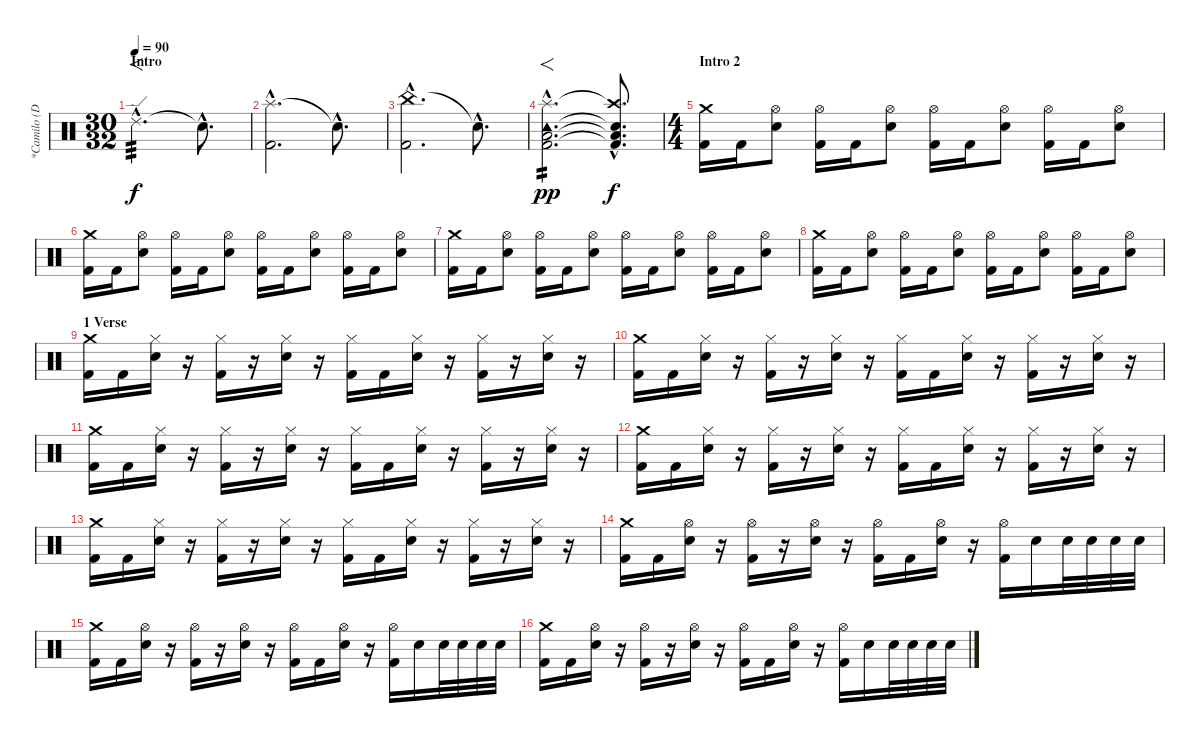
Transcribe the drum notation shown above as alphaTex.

\track ("*Camilo (Drums)" "*Camilo (D") {instrument percussion}
\staff {score}
\articulation defaults
\ts (30 32)
\section ("" "Intro")
\tempo 90
\clef neutral
\ks c "Ride (edge) 2"{hac}.2{f d tp 3 dy f} "Snare (hit)"{hac t}.8{d}
|
("Splash (hit)"{hac} "Kick (hit) 2"{hac}).2{d} "Snare (hit)"{hac t}.8{d} |
("China (hit)"{hac} "Kick (hit) 2"{hac}).2{d} "Snare (hit)"{hac t}.8{d} |
("Splash (hit)"{hac} "Tambourine (hit)"{hac} "Low Floor Tom (hit)"{hac} "Kick (hit) 2"{hac}).2{f d tp 2 dy pp} ("Crash high (hit)"{hac t} "Electric Snare (hit)"{hac t} "Low Floor Tom (hit)"{hac t} "Kick (hit) 2"{hac t}).8{d dy f} |
\ts (4 4)
\section ("" "Intro 2")
("Crash medium (hit)" "Kick (hit) 2").16 "Kick (hit) 2".16 ("Hi-Hat (open)" "Electric Snare (hit)").8 ("Hi-Hat (open)" "Kick (hit) 2").16 "Kick (hit) 2".16 ("Hi-Hat (open)" "Electric Snare (hit)").8 ("Hi-Hat (open)" "Kick (hit) 2").16 "Kick (hit) 2".16 ("Hi-Hat (open)" "Electric Snare (hit)").8 ("Hi-Hat (open)" "Kick (hit) 2").16 "Kick (hit) 2".16 ("Hi-Hat (open)" "Electric Snare (hit)").8 |
("Crash medium (hit)" "Kick (hit) 2").16 "Kick (hit) 2".16 ("Hi-Hat (open)" "Electric Snare (hit)").8 ("Hi-Hat (open)" "Kick (hit) 2").16 "Kick (hit) 2".16 ("Hi-Hat (open)" "Electric Snare (hit)").8 ("Hi-Hat (open)" "Kick (hit) 2").16 "Kick (hit) 2".16 ("Hi-Hat (open)" "Electric Snare (hit)").8 ("Hi-Hat (open)" "Kick (hit) 2").16 "Kick (hit) 2".16 ("Hi-Hat (open)" "Electric Snare (hit)").8 |
("Crash medium (hit)" "Kick (hit) 2").16 "Kick (hit) 2".16 ("Hi-Hat (open)" "Electric Snare (hit)").8 ("Hi-Hat (open)" "Kick (hit) 2").16 "Kick (hit) 2".16 ("Hi-Hat (open)" "Electric Snare (hit)").8 ("Hi-Hat (open)" "Kick (hit) 2").16 "Kick (hit) 2".16 ("Hi-Hat (open)" "Electric Snare (hit)").8 ("Hi-Hat (open)" "Kick (hit) 2").16 "Kick (hit) 2".16 ("Hi-Hat (open)" "Electric Snare (hit)").8 |
("Crash medium (hit)" "Kick (hit) 2").16 "Kick (hit) 2".16 ("Hi-Hat (open)" "Electric Snare (hit)").8 ("Hi-Hat (open)" "Kick (hit) 2").16 "Kick (hit) 2".16 ("Hi-Hat (open)" "Electric Snare (hit)").8 ("Hi-Hat (open)" "Kick (hit) 2").16 "Kick (hit) 2".16 ("Hi-Hat (open)" "Electric Snare (hit)").8 ("Hi-Hat (open)" "Kick (hit) 2").16 "Kick (hit) 2".16 ("Hi-Hat (open)" "Electric Snare (hit)").8 |
\section ("" "1 Verse")
("Crash medium (hit)" "Kick (hit) 2").16 "Kick (hit) 2".16 ("Hi-Hat (closed)" "Electric Snare (hit)").16 r.16 ("Hi-Hat (closed)" "Kick (hit) 2").16 r.16 ("Hi-Hat (closed)" "Electric Snare (hit)").16 r.16 ("Hi-Hat (closed)" "Kick (hit) 2").16 "Kick (hit) 2".16 ("Hi-Hat (closed)" "Electric Snare (hit)").16 r.16 ("Hi-Hat (closed)" "Kick (hit) 2").16 r.16 ("Hi-Hat (closed)" "Electric Snare (hit)").16 r.16 |
("Crash medium (hit)" "Kick (hit) 2").16 "Kick (hit) 2".16 ("Hi-Hat (closed)" "Electric Snare (hit)").16 r.16 ("Hi-Hat (closed)" "Kick (hit) 2").16 r.16 ("Hi-Hat (closed)" "Electric Snare (hit)").16 r.16 ("Hi-Hat (closed)" "Kick (hit) 2").16 "Kick (hit) 2".16 ("Hi-Hat (closed)" "Electric Snare (hit)").16 r.16 ("Hi-Hat (closed)" "Kick (hit) 2").16 r.16 ("Hi-Hat (closed)" "Electric Snare (hit)").16 r.16 |
("Crash medium (hit)" "Kick (hit) 2").16 "Kick (hit) 2".16 ("Hi-Hat (closed)" "Electric Snare (hit)").16 r.16 ("Hi-Hat (closed)" "Kick (hit) 2").16 r.16 ("Hi-Hat (closed)" "Electric Snare (hit)").16 r.16 ("Hi-Hat (closed)" "Kick (hit) 2").16 "Kick (hit) 2".16 ("Hi-Hat (closed)" "Electric Snare (hit)").16 r.16 ("Hi-Hat (closed)" "Kick (hit) 2").16 r.16 ("Hi-Hat (closed)" "Electric Snare (hit)").16 r.16 |
("Crash medium (hit)" "Kick (hit) 2").16 "Kick (hit) 2".16 ("Hi-Hat (closed)" "Electric Snare (hit)").16 r.16 ("Hi-Hat (closed)" "Kick (hit) 2").16 r.16 ("Hi-Hat (closed)" "Electric Snare (hit)").16 r.16 ("Hi-Hat (closed)" "Kick (hit) 2").16 "Kick (hit) 2".16 ("Hi-Hat (closed)" "Electric Snare (hit)").16 r.16 ("Hi-Hat (closed)" "Kick (hit) 2").16 r.16 ("Hi-Hat (closed)" "Electric Snare (hit)").16 r.16 |
("Crash medium (hit)" "Kick (hit) 2").16 "Kick (hit) 2".16 ("Hi-Hat (closed)" "Electric Snare (hit)").16 r.16 ("Hi-Hat (closed)" "Kick (hit) 2").16 r.16 ("Hi-Hat (closed)" "Electric Snare (hit)").16 r.16 ("Hi-Hat (closed)" "Kick (hit) 2").16 "Kick (hit) 2".16 ("Hi-Hat (closed)" "Electric Snare (hit)").16 r.16 ("Hi-Hat (closed)" "Kick (hit) 2").16 r.16 ("Hi-Hat (closed)" "Electric Snare (hit)").16 r.16 |
("Crash medium (hit)" "Kick (hit) 2").16 "Kick (hit) 2".16 ("Hi-Hat (open)" "Electric Snare (hit)").16 r.16 ("Hi-Hat (open)" "Kick (hit) 2").16 r.16 ("Hi-Hat (open)" "Electric Snare (hit)").16 r.16 ("Hi-Hat (open)" "Kick (hit) 2").16 "Kick (hit) 2".16 ("Hi-Hat (open)" "Electric Snare (hit)").16 r.16 ("Hi-Hat (open)" "Kick (hit) 2").16 "Electric Snare (hit)".16 "Electric Snare (hit)".32 "Electric Snare (hit)".32 "Electric Snare (hit)".32 "Electric Snare (hit)".32 |
("Crash medium (hit)" "Kick (hit) 2").16 "Kick (hit) 2".16 ("Hi-Hat (open)" "Electric Snare (hit)").16 r.16 ("Hi-Hat (open)" "Kick (hit) 2").16 r.16 ("Hi-Hat (open)" "Electric Snare (hit)").16 r.16 ("Hi-Hat (open)" "Kick (hit) 2").16 "Kick (hit) 2".16 ("Hi-Hat (open)" "Electric Snare (hit)").16 r.16 ("Hi-Hat (open)" "Kick (hit) 2").16 "Electric Snare (hit)".16 "Electric Snare (hit)".32 "Electric Snare (hit)".32 "Electric Snare (hit)".32 "Electric Snare (hit)".32 |
("Crash medium (hit)" "Kick (hit) 2").16 "Kick (hit) 2".16 ("Hi-Hat (open)" "Electric Snare (hit)").16 r.16 ("Hi-Hat (open)" "Kick (hit) 2").16 r.16 ("Hi-Hat (open)" "Electric Snare (hit)").16 r.16 ("Hi-Hat (open)" "Kick (hit) 2").16 "Kick (hit) 2".16 ("Hi-Hat (open)" "Electric Snare (hit)").16 r.16 ("Hi-Hat (open)" "Kick (hit) 2").16 "Electric Snare (hit)".16 "Electric Snare (hit)".32 "Electric Snare (hit)".32 "Electric Snare (hit)".32 "Electric Snare (hit)".32
